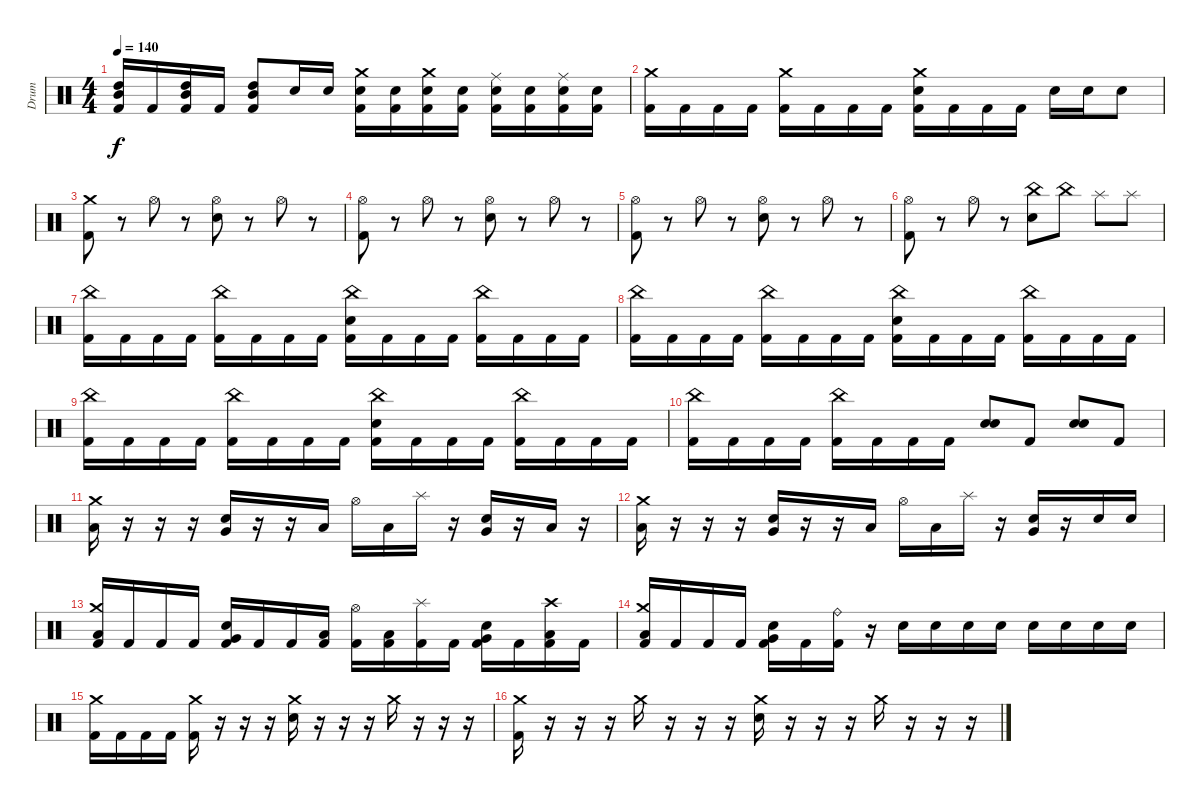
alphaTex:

\track ("Drum" "Drum") {instrument percussion}
\staff {score}
\articulation defaults
\ts (4 4)
\tempo 140
\clef neutral
\ks c
("Mid Tom (hit)" "High Tom (hit)" "Kick (hit) 2").16{dy f} "Kick (hit) 2".16 ("Mid Tom (hit)" "High Tom (hit)" "Kick (hit) 2").16 "Kick (hit) 2".16 ("Mid Tom (hit)" "High Tom (hit)" "Kick (hit) 2").8 "Snare (hit) 2".16 "Snare (hit) 2".16 ("Crash medium (hit)" "Snare (hit) 2" "Kick (hit) 2").16 ("Snare (hit) 2" "Kick (hit) 2").16 ("Crash medium (hit)" "Snare (hit) 2" "Kick (hit) 2").16 ("Snare (hit) 2" "Kick (hit) 2").16 ("Ride (middle)" "Snare (hit) 2" "Kick (hit) 2").16 ("Snare (hit) 2" "Kick (hit) 2").16 ("Ride (middle)" "Snare (hit) 2" "Kick (hit) 2").16 ("Snare (hit) 2" "Kick (hit) 2").16 |
("Crash medium (hit)" "Kick (hit) 2").16 "Kick (hit) 2".16 "Kick (hit) 2".16 "Kick (hit) 2".16 ("Crash medium (hit)" "Kick (hit) 2").16 "Kick (hit) 2".16 "Kick (hit) 2".16 "Kick (hit) 2".16 ("Crash medium (hit)" "Snare (hit) 2" "Kick (hit) 2").16 "Kick (hit) 2".16 "Kick (hit) 2".16 "Kick (hit) 2".16 "Snare (hit) 2".16 "Snare (hit) 2".16 "Snare (hit) 2".8 |
("Crash medium (hit)" "Kick (hit) 2").8 r.8 "Hi-Hat (open)".8 r.8 ("Hi-Hat (open)" "Snare (hit) 2").8 r.8 "Hi-Hat (open)".8 r.8 |
("Hi-Hat (open)" "Kick (hit) 2").8 r.8 "Hi-Hat (open)".8 r.8 ("Hi-Hat (open)" "Snare (hit) 2").8 r.8 "Hi-Hat (open)".8 r.8 |
("Hi-Hat (open)" "Kick (hit) 2").8 r.8 "Hi-Hat (open)".8 r.8 ("Hi-Hat (open)" "Snare (hit) 2").8 r.8 "Hi-Hat (open)".8 r.8 |
("Hi-Hat (open)" "Kick (hit) 2").8 r.8 "Hi-Hat (open)".8 r.8 ("China (hit)" "Snare (hit) 2").8 "China (hit)".8 "Splash (hit)".8 "Splash (hit)".8 |
("China (hit)" "Kick (hit) 2").16 "Kick (hit) 2".16 "Kick (hit) 2".16 "Kick (hit) 2".16 ("China (hit)" "Kick (hit) 2").16 "Kick (hit) 2".16 "Kick (hit) 2".16 "Kick (hit) 2".16 ("China (hit)" "Snare (hit) 2" "Kick (hit) 2").16 "Kick (hit) 2".16 "Kick (hit) 2".16 "Kick (hit) 2".16 ("China (hit)" "Kick (hit) 2").16 "Kick (hit) 2".16 "Kick (hit) 2".16 "Kick (hit) 2".16 |
("China (hit)" "Kick (hit) 2").16 "Kick (hit) 2".16 "Kick (hit) 2".16 "Kick (hit) 2".16 ("China (hit)" "Kick (hit) 2").16 "Kick (hit) 2".16 "Kick (hit) 2".16 "Kick (hit) 2".16 ("China (hit)" "Snare (hit) 2" "Kick (hit) 2").16 "Kick (hit) 2".16 "Kick (hit) 2".16 "Kick (hit) 2".16 ("China (hit)" "Kick (hit) 2").16 "Kick (hit) 2".16 "Kick (hit) 2".16 "Kick (hit) 2".16 |
("China (hit)" "Kick (hit) 2").16 "Kick (hit) 2".16 "Kick (hit) 2".16 "Kick (hit) 2".16 ("China (hit)" "Kick (hit) 2").16 "Kick (hit) 2".16 "Kick (hit) 2".16 "Kick (hit) 2".16 ("China (hit)" "Snare (hit) 2" "Kick (hit) 2").16 "Kick (hit) 2".16 "Kick (hit) 2".16 "Kick (hit) 2".16 ("China (hit)" "Kick (hit) 2").16 "Kick (hit) 2".16 "Kick (hit) 2".16 "Kick (hit) 2".16 |
("China (hit)" "Kick (hit) 2").16 "Kick (hit) 2".16 "Kick (hit) 2".16 "Kick (hit) 2".16 ("China (hit)" "Kick (hit) 2").16 "Kick (hit) 2".16 "Kick (hit) 2".16 "Kick (hit) 2".16 ("Snare (hit) 2" "Snare (hit) 2").8 "Kick (hit) 2".8 ("Snare (hit) 2" "Snare (hit) 2").8 "Kick (hit) 2".8 |
("Crash medium (hit)" "Low Tom (hit)").16 r.16 r.16 r.16 ("Snare (hit) 2" "Very Low Tom (hit)").16 r.16 r.16 "Low Tom (hit)".16 "Hi-Hat (open)".16 "Low Tom (hit)".16 "Splash (hit)".16 r.16 ("Snare (hit) 2" "Very Low Tom (hit)").16 r.16 "Low Tom (hit)".16 r.16 |
("Crash medium (hit)" "Low Tom (hit)").16 r.16 r.16 r.16 ("Snare (hit) 2" "Very Low Tom (hit)").16 r.16 r.16 "Low Tom (hit)".16 "Hi-Hat (open)".16 "Low Tom (hit)".16 "Splash (hit)".16 r.16 ("Snare (hit) 2" "Very Low Tom (hit)").16 r.16 "Snare (hit) 2".16 "Snare (hit) 2".16 |
("Crash medium (hit)" "Low Tom (hit)" "Kick (hit) 2").16 "Kick (hit) 2".16 "Kick (hit) 2".16 "Kick (hit) 2".16 ("Snare (hit) 2" "Very Low Tom (hit)" "Kick (hit) 2").16 "Kick (hit) 2".16 "Kick (hit) 2".16 ("Low Tom (hit)" "Kick (hit) 2").16 ("Hi-Hat (open)" "Kick (hit) 2").16 ("Low Tom (hit)" "Kick (hit) 2").16 ("Splash (hit)" "Kick (hit) 2").16 "Kick (hit) 2".16 ("Snare (hit) 2" "Very Low Tom (hit)" "Kick (hit) 2").16 "Kick (hit) 2".16 ("Crash high (hit)" "Low Tom (hit)" "Kick (hit) 2").16 "Kick (hit) 2".16 |
("Crash medium (hit)" "Low Tom (hit)" "Kick (hit) 2").16 "Kick (hit) 2".16 "Kick (hit) 2".16 "Kick (hit) 2".16 ("Snare (hit) 2" "Very Low Tom (hit)" "Kick (hit) 2").16 "Kick (hit) 2".16 ("Ride (bell)" "Kick (hit) 2").16 r.16 "Snare (hit) 2".16 "Snare (hit) 2".16 "Snare (hit) 2".16 "Snare (hit) 2".16 "Snare (hit) 2".16 "Snare (hit) 2".16 "Snare (hit) 2".16 "Snare (hit) 2".16 |
("Crash medium (hit)" "Kick (hit) 2").16 "Kick (hit) 2".16 "Kick (hit) 2".16 "Kick (hit) 2".16 ("Crash medium (hit)" "Kick (hit) 2").16 r.16 r.16 r.16 ("Crash medium (hit)" "Snare (hit) 2").16 r.16 r.16 r.16 "Crash medium (hit)".16 r.16 r.16 r.16 |
("Crash medium (hit)" "Kick (hit) 2").16 r.16 r.16 r.16 "Crash medium (hit)".16 r.16 r.16 r.16 ("Crash medium (hit)" "Snare (hit) 2").16 r.16 r.16 r.16 "Crash medium (hit)".16 r.16 r.16 r.16
